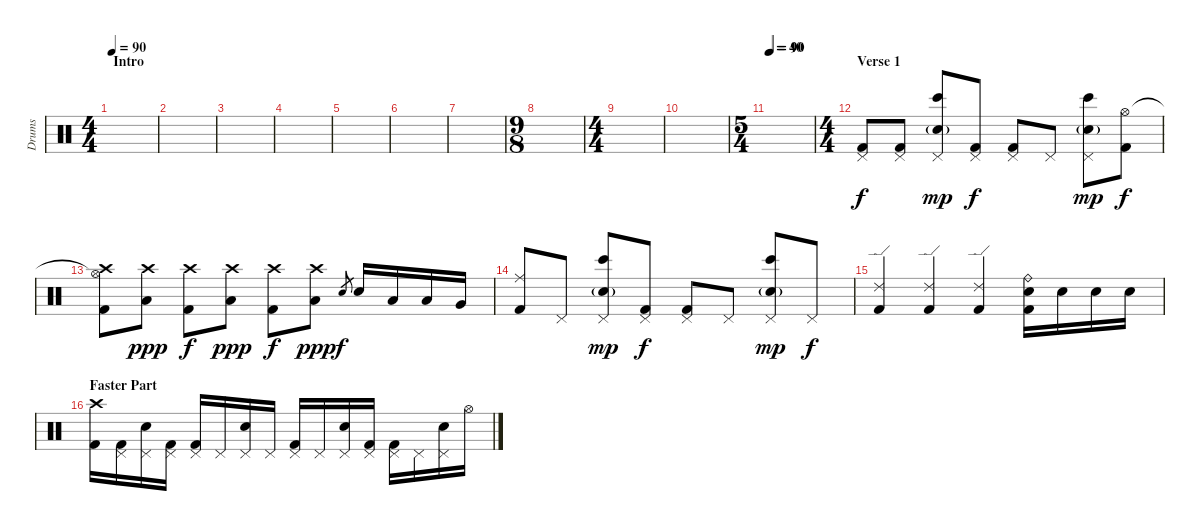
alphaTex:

\track ("Drums" "Drums") {instrument percussion}
\staff {score}
\articulation defaults
\ts (4 4)
\section ("" "Intro")
\tempo 90
\clef neutral
\ks c
|
|
|
|
|
|
|
\ts (9 8)
|
\ts (4 4)
|
|
\ts (5 4)
\tempo 40
\tempo (90 0.030625)
|
\ts (4 4)
\section ("" "Verse 1")
("Pedal Hi-Hat (hit)" "Kick (hit) 2").8 ("Pedal Hi-Hat (hit)" "Kick (hit) 2").8 ("Pedal Hi-Hat (hit)" "Bongo High (hit)" "Electric Snare (hit)"{g}).8{dy mp} ("Pedal Hi-Hat (hit)" "Kick (hit) 2").8{dy f} ("Pedal Hi-Hat (hit)" "Kick (hit) 2").8 "Pedal Hi-Hat (hit)".8 ("Pedal Hi-Hat (hit)" "Bongo High (hit)" "Electric Snare (hit)"{g}).8{dy mp} ("Hi-Hat (open)" "Kick (hit) 2").8{dy f} |
("Hi-Hat (open)"{t} "Crash high (hit)" "Kick (hit) 2").8 ("Crash high (hit)" "Low Tom (hit)").8{dy ppp} ("Crash high (hit)" "Kick (hit) 2").8{dy f} ("Crash high (hit)" "Low Tom (hit)").8{dy ppp} ("Crash high (hit)" "Kick (hit) 2").8{dy f} ("Crash high (hit)" "Low Tom (hit)").8{dy ppp} "Electric Snare (hit)".8{gr dy f} "Electric Snare (hit)".16 "Low Floor Tom (hit)".16 "Low Tom (hit)".16 "Very Low Tom (hit)".16 |
("Ride (middle)" "Kick (hit) 2").8 "Pedal Hi-Hat (hit)".8 ("Pedal Hi-Hat (hit)" "Bongo High (hit)" "Electric Snare (hit)"{g}).8{dy mp} ("Pedal Hi-Hat (hit)" "Kick (hit) 2").8{dy f} ("Pedal Hi-Hat (hit)" "Kick (hit) 2").8 "Pedal Hi-Hat (hit)".8 ("Pedal Hi-Hat (hit)" "Bongo High (hit)" "Electric Snare (hit)"{g}).8{dy mp} "Pedal Hi-Hat (hit)".8{dy f} |
("Ride (edge) 2" "Kick (hit) 2").4 ("Ride (edge) 2" "Kick (hit) 2").4 ("Ride (edge) 2" "Kick (hit) 2").4 ("Ride (bell)" "Electric Snare (hit)" "Kick (hit) 2").16 "Electric Snare (hit)".16 "Electric Snare (hit)".16 "Electric Snare (hit)".16 |
\section ("" "Faster Part")
("Crash high (hit)" "Kick (hit) 2").16 ("Pedal Hi-Hat (hit)" "Kick (hit) 2").16 ("Pedal Hi-Hat (hit)" "Electric Snare (hit)").16 ("Pedal Hi-Hat (hit)" "Kick (hit) 2").16 ("Pedal Hi-Hat (hit)" "Kick (hit) 2").16 "Pedal Hi-Hat (hit)".16 ("Pedal Hi-Hat (hit)" "Electric Snare (hit)").16 "Pedal Hi-Hat (hit)".16 ("Pedal Hi-Hat (hit)" "Kick (hit) 2").16 "Pedal Hi-Hat (hit)".16 ("Pedal Hi-Hat (hit)" "Electric Snare (hit)").16 ("Pedal Hi-Hat (hit)" "Kick (hit) 2").16 ("Pedal Hi-Hat (hit)" "Kick (hit) 2").16 "Pedal Hi-Hat (hit)".16 ("Pedal Hi-Hat (hit)" "Electric Snare (hit)").16 "Hi-Hat (open)".16
